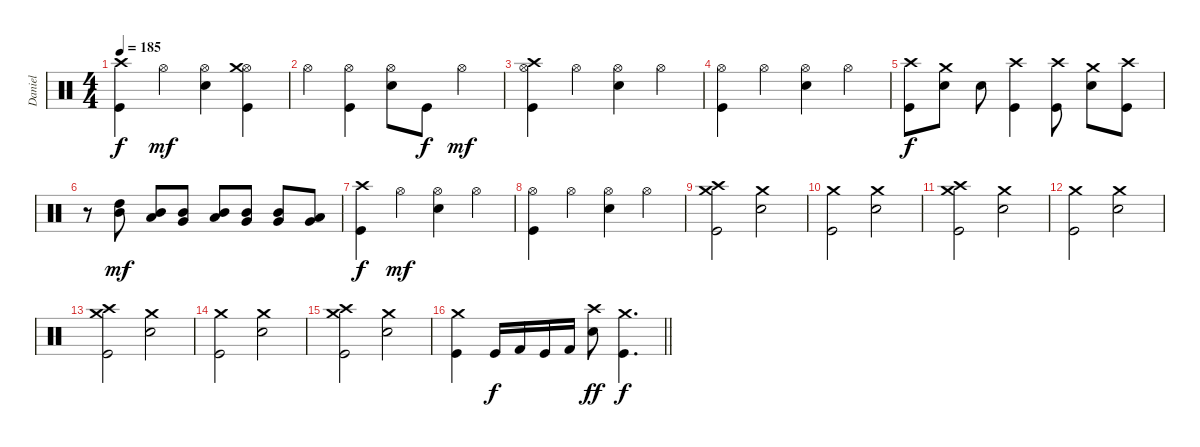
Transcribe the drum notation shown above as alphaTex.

\track ("Daniel" "Daniel") {instrument percussion}
\staff {score}
\articulation defaults
\ts (4 4)
\tempo 185
\clef neutral
\ks c
("Kick (hit)" "Crash high (hit)").4{dy f} "Hi-Hat (open)".4{dy mf} ("Electric Snare (hit)" "Hi-Hat (open)").4 ("Kick (hit)" "Hi-Hat (open)" "Crash medium (hit)").4 |
"Hi-Hat (open)".4 ("Kick (hit)" "Hi-Hat (open)").4 ("Electric Snare (hit)" "Hi-Hat (open)").8 "Kick (hit)".8{dy f} "Hi-Hat (open)".4{dy mf} |
("Kick (hit)" "Hi-Hat (open)" "Crash high (hit)").4 "Hi-Hat (open)".4 ("Electric Snare (hit)" "Hi-Hat (open)").4 "Hi-Hat (open)".4 |
("Kick (hit)" "Hi-Hat (open)").4 "Hi-Hat (open)".4 ("Electric Snare (hit)" "Hi-Hat (open)").4 "Hi-Hat (open)".4 |
("Kick (hit)" "Crash high (hit)").8{dy f} ("Electric Snare (hit)" "Crash medium (hit)").8 "Electric Snare (hit)".8 ("Kick (hit)" "Crash high (hit)").4 ("Kick (hit)" "Crash high (hit)").8 ("Electric Snare (hit)" "Crash medium (hit)").8 ("Kick (hit)" "Crash high (hit)").8 |
r.8 ("Mid Tom (hit)" "High Tom (hit)").8{dy mf} ("Low Tom (hit)" "Mid Tom (hit)").8 ("Very Low Tom (hit)" "Mid Tom (hit)").8 ("Low Tom (hit)" "Mid Tom (hit)").8 ("Very Low Tom (hit)" "Mid Tom (hit)").8 ("Very Low Tom (hit)" "Mid Tom (hit)").8 ("Very Low Tom (hit)" "Low Tom (hit)").8 |
("Kick (hit)" "Crash high (hit)").4{dy f} "Hi-Hat (open)".4{dy mf} ("Electric Snare (hit)" "Hi-Hat (open)").4 "Hi-Hat (open)".4 |
("Kick (hit)" "Hi-Hat (open)").4 "Hi-Hat (open)".4 ("Electric Snare (hit)" "Hi-Hat (open)").4 "Hi-Hat (open)".4 |
("Kick (hit)" "Crash medium (hit)" "Crash high (hit)").2 ("Electric Snare (hit)" "Crash medium (hit)").2 |
("Kick (hit)" "Crash medium (hit)").2 ("Electric Snare (hit)" "Crash medium (hit)").2 |
("Kick (hit)" "Crash medium (hit)" "Crash high (hit)").2 ("Electric Snare (hit)" "Crash medium (hit)").2 |
("Kick (hit)" "Crash medium (hit)").2 ("Electric Snare (hit)" "Crash medium (hit)").2 |
("Kick (hit)" "Crash medium (hit)" "Crash high (hit)").2 ("Electric Snare (hit)" "Crash medium (hit)").2 |
("Kick (hit)" "Crash medium (hit)").2 ("Electric Snare (hit)" "Crash medium (hit)").2 |
("Kick (hit)" "Crash medium (hit)" "Crash high (hit)").2 ("Electric Snare (hit)" "Crash medium (hit)").2 |
\barLineRight lightlight
("Kick (hit)" "Crash medium (hit)").4 "Kick (hit)".16{dy f} "Kick (hit) 2".16 "Kick (hit)".16 "Kick (hit) 2".16 ("Electric Snare (hit)" "Crash high (hit)").8{dy ff} ("Kick (hit)" "Crash medium (hit)").4{d dy f}
